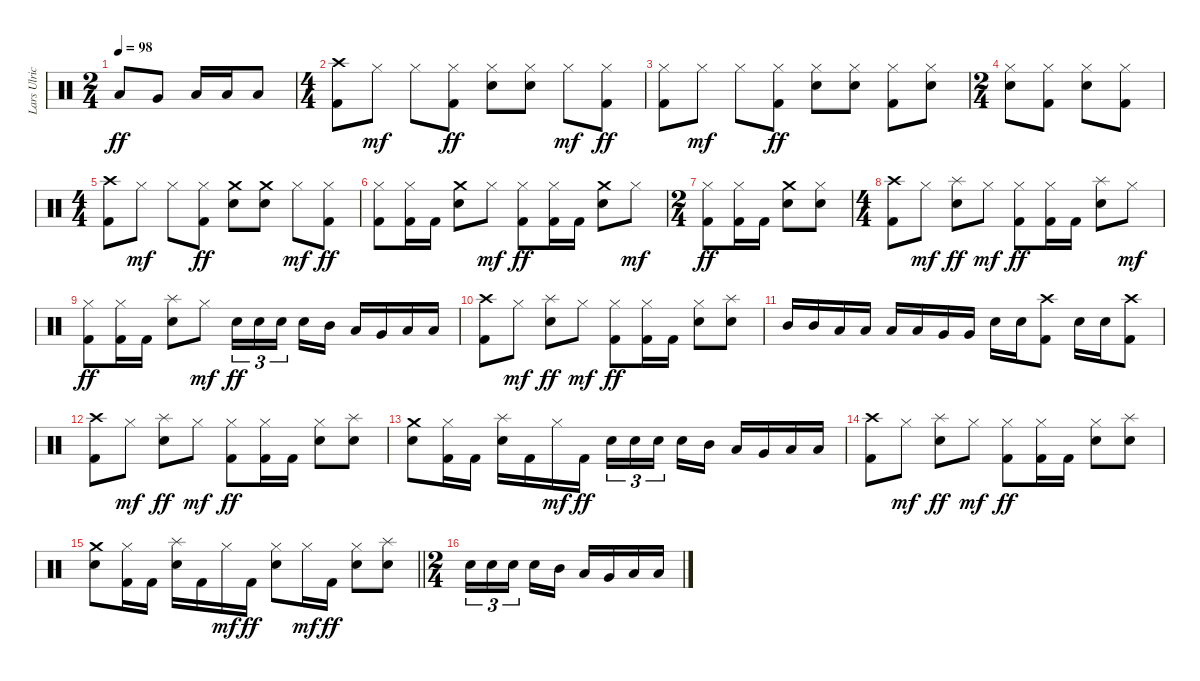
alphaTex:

\track ("Lars Ulrich" "Lars Ulric") {instrument percussion}
\staff {score}
\articulation defaults
\ts (2 4)
\tempo 98
\clef neutral
\ks c "Low Tom (hit)".8{dy ff} "Very Low Tom (hit)".8 "Low Floor Tom (hit)".16 "Low Floor Tom (hit)".16 "Low Floor Tom (hit)".8
|
\ts (4 4)
("Crash high (hit)" "Kick (hit) 2").8 "Hi-Hat (closed)".8{dy mf} "Hi-Hat (closed)".8 ("Hi-Hat (closed)" "Kick (hit) 2").8{dy ff} ("Hi-Hat (closed)" "Snare (hit) 2").8 ("Hi-Hat (closed)" "Snare (hit) 2").8 "Hi-Hat (closed)".8{dy mf} ("Hi-Hat (closed)" "Kick (hit) 2").8{dy ff} |
("Hi-Hat (closed)" "Kick (hit) 2").8 "Hi-Hat (closed)".8{dy mf} "Hi-Hat (closed)".8 ("Hi-Hat (closed)" "Kick (hit) 2").8{dy ff} ("Hi-Hat (closed)" "Snare (hit) 2").8 ("Hi-Hat (closed)" "Snare (hit) 2").8 ("Hi-Hat (closed)" "Kick (hit) 2").8 ("Hi-Hat (closed)" "Snare (hit) 2").8 |
\ts (2 4)
("Hi-Hat (closed)" "Snare (hit) 2").8 ("Hi-Hat (closed)" "Kick (hit) 2").8 ("Hi-Hat (closed)" "Snare (hit) 2").8 ("Hi-Hat (closed)" "Kick (hit) 2").8 |
\ts (4 4)
("Crash high (hit)" "Kick (hit) 2").8 "Hi-Hat (closed)".8{dy mf} "Hi-Hat (closed)".8 ("Hi-Hat (closed)" "Kick (hit) 2").8{dy ff} ("Crash medium (hit)" "Snare (hit) 2").8 ("Crash medium (hit)" "Snare (hit) 2").8 "Hi-Hat (closed)".8{dy mf} ("Hi-Hat (closed)" "Kick (hit) 2").8{dy ff} |
("Hi-Hat (closed)" "Kick (hit) 2").8 ("Hi-Hat (closed)" "Kick (hit) 2").16 "Kick (hit) 2".16 ("Crash medium (hit)" "Snare (hit) 2").8 "Hi-Hat (closed)".8{dy mf} ("Hi-Hat (closed)" "Kick (hit) 2").8{dy ff} ("Hi-Hat (closed)" "Kick (hit) 2").16 "Kick (hit) 2".16 ("Crash medium (hit)" "Snare (hit) 2").8 "Hi-Hat (closed)".8{dy mf} |
\ts (2 4)
("Hi-Hat (closed)" "Kick (hit) 2").8{dy ff} ("Hi-Hat (closed)" "Kick (hit) 2").16 "Kick (hit) 2".16 ("Crash medium (hit)" "Snare (hit) 2").8 ("Hi-Hat (closed)" "Snare (hit) 2").8 |
\ts (4 4)
("Crash high (hit)" "Kick (hit) 2").8 "Hi-Hat (closed)".8{dy mf} ("Splash (hit)" "Snare (hit) 2").8{dy ff} "Hi-Hat (closed)".8{dy mf} ("Hi-Hat (closed)" "Kick (hit) 2").8{dy ff} ("Hi-Hat (closed)" "Kick (hit) 2").16 "Kick (hit) 2".16 ("Splash (hit)" "Snare (hit) 2").8 "Hi-Hat (closed)".8{dy mf} |
("Hi-Hat (closed)" "Kick (hit) 2").8{dy ff} ("Hi-Hat (closed)" "Kick (hit) 2").16 "Kick (hit) 2".16 ("Splash (hit)" "Snare (hit) 2").8 "Hi-Hat (closed)".8{dy mf} "Snare (hit) 2".16{tu (3 2) dy ff} "Snare (hit) 2".16{tu (3 2)} "Snare (hit) 2".16{tu (3 2) beam splitsecondary} "Snare (hit) 2".16 "Mid Tom (hit)".16 "Low Tom (hit)".16 "Very Low Tom (hit)".16 "Low Floor Tom (hit)".16 "Low Floor Tom (hit)".16 |
("Crash high (hit)" "Kick (hit) 2").8 "Hi-Hat (closed)".8{dy mf} ("Splash (hit)" "Snare (hit) 2").8{dy ff} "Hi-Hat (closed)".8{dy mf} ("Hi-Hat (closed)" "Kick (hit) 2").8{dy ff} ("Hi-Hat (closed)" "Kick (hit) 2").16 "Kick (hit) 2".16 ("Hi-Hat (closed)" "Snare (hit) 2").8 ("Splash (hit)" "Snare (hit) 2").8 |
"Mid Tom (hit)".16 "Mid Tom (hit)".16 "Low Tom (hit)".16 "Low Tom (hit)".16 "Low Tom (hit)".16 "Low Tom (hit)".16 "Very Low Tom (hit)".16 "Very Low Tom (hit)".16 "Snare (hit) 2".16 "Snare (hit) 2".16 ("Crash high (hit)" "Kick (hit) 2").8 "Snare (hit) 2".16 "Snare (hit) 2".16 ("Crash high (hit)" "Kick (hit) 2").8 |
("Crash high (hit)" "Kick (hit) 2").8 "Hi-Hat (closed)".8{dy mf} ("Splash (hit)" "Snare (hit) 2").8{dy ff} "Hi-Hat (closed)".8{dy mf} ("Hi-Hat (closed)" "Kick (hit) 2").8{dy ff} ("Hi-Hat (closed)" "Kick (hit) 2").16 "Kick (hit) 2".16 ("Hi-Hat (closed)" "Snare (hit) 2").8 ("Splash (hit)" "Snare (hit) 2").8 |
("Crash medium (hit)" "Snare (hit) 2").8 ("Hi-Hat (closed)" "Kick (hit) 2").16 "Kick (hit) 2".16 ("Splash (hit)" "Snare (hit) 2").16 "Kick (hit) 2".16 "Hi-Hat (closed)".16{dy mf} "Kick (hit) 2".16{dy ff} "Snare (hit) 2".16{tu (3 2)} "Snare (hit) 2".16{tu (3 2)} "Snare (hit) 2".16{tu (3 2) beam splitsecondary} "Snare (hit) 2".16 "Mid Tom (hit)".16 "Low Tom (hit)".16 "Very Low Tom (hit)".16 "Low Floor Tom (hit)".16 "Low Floor Tom (hit)".16 |
("Crash high (hit)" "Kick (hit) 2").8 "Hi-Hat (closed)".8{dy mf} ("Splash (hit)" "Snare (hit) 2").8{dy ff} "Hi-Hat (closed)".8{dy mf} ("Hi-Hat (closed)" "Kick (hit) 2").8{dy ff} ("Hi-Hat (closed)" "Kick (hit) 2").16 "Kick (hit) 2".16 ("Hi-Hat (closed)" "Snare (hit) 2").8 ("Splash (hit)" "Snare (hit) 2").8 |
\barLineRight lightlight
("Crash medium (hit)" "Snare (hit) 2").8 ("Hi-Hat (closed)" "Kick (hit) 2").16 "Kick (hit) 2".16 ("Splash (hit)" "Snare (hit) 2").16 "Kick (hit) 2".16 "Hi-Hat (closed)".16{dy mf} "Kick (hit) 2".16{dy ff} ("Hi-Hat (closed)" "Snare (hit) 2").8 "Hi-Hat (closed)".16{dy mf} "Kick (hit) 2".16{dy ff} ("Hi-Hat (closed)" "Snare (hit) 2").8 ("Splash (hit)" "Snare (hit) 2").8 |
\ts (2 4)
"Snare (hit) 2".16{tu (3 2)} "Snare (hit) 2".16{tu (3 2)} "Snare (hit) 2".16{tu (3 2) beam splitsecondary} "Snare (hit) 2".16 "Mid Tom (hit)".16 "Low Tom (hit)".16 "Very Low Tom (hit)".16 "Low Floor Tom (hit)".16 "Low Floor Tom (hit)".16
